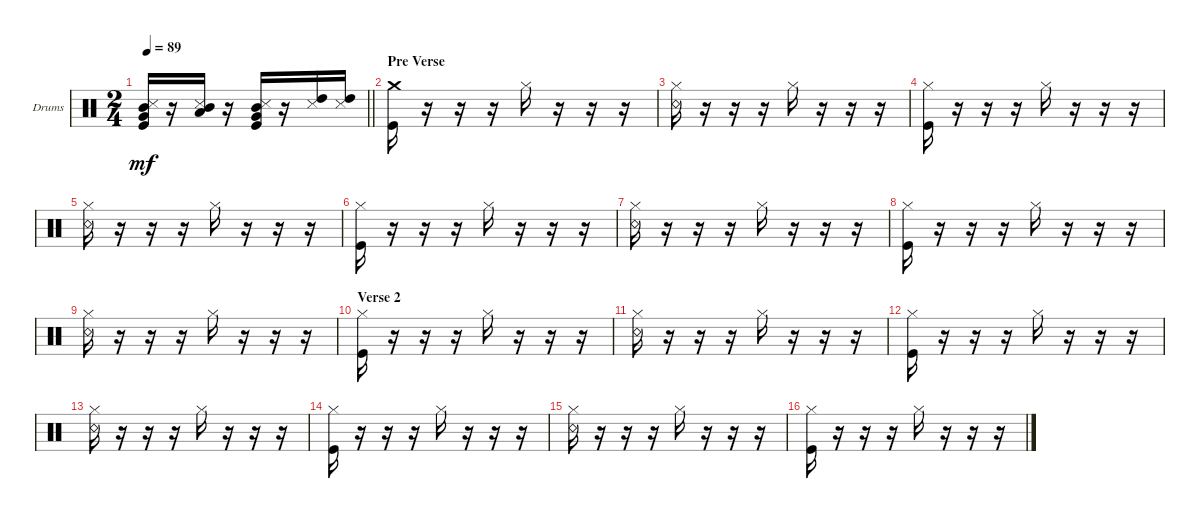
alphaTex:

\bracketExtendMode groupsimilarinstruments
\firstSystemTrackNameOrientation horizontal
\otherSystemsTrackNameOrientation horizontal
\track ("Ryo" "Drums") {instrument percussion}
\staff {score}
\articulation defaults
\ts (2 4)
\tempo 89
\clef neutral
\barLineRight lightlight
\ks c
("Kick (hit)" "Very Low Tom (hit)" "Snare (side stick) 3" "Mid Tom (hit)").16{dy mf} r.16 ("Mid Tom (hit)" "Low Tom (hit)" "Snare (side stick) 3").16 r.16 ("Kick (hit)" "Very Low Tom (hit)" "Snare (side stick) 3" "Mid Tom (hit)").16 r.16 ("High Tom (hit)" "Snare (side stick) 3").16 ("High Tom (hit)" "Snare (side stick) 3").16 |
\section ("" "Pre Verse")
("Kick (hit)" "Crash medium (hit)").16 r.16 r.16 r.16 "Hi-Hat (closed)".16 r.16 r.16 r.16 |
("Snare (rim shot)" "Hi-Hat (closed)").16 r.16 r.16 r.16 "Hi-Hat (closed)".16 r.16 r.16 r.16 |
("Kick (hit)" "Hi-Hat (closed)").16 r.16 r.16 r.16 "Hi-Hat (closed)".16 r.16 r.16 r.16 |
("Snare (rim shot)" "Hi-Hat (closed)").16 r.16 r.16 r.16 "Hi-Hat (closed)".16 r.16 r.16 r.16 |
("Kick (hit)" "Hi-Hat (closed)").16 r.16 r.16 r.16 "Hi-Hat (closed)".16 r.16 r.16 r.16 |
("Snare (rim shot)" "Hi-Hat (closed)").16 r.16 r.16 r.16 "Hi-Hat (closed)".16 r.16 r.16 r.16 |
("Kick (hit)" "Hi-Hat (closed)").16 r.16 r.16 r.16 "Hi-Hat (closed)".16 r.16 r.16 r.16 |
("Snare (rim shot)" "Hi-Hat (closed)").16 r.16 r.16 r.16 "Hi-Hat (closed)".16 r.16 r.16 r.16 |
\section ("" "Verse 2")
("Kick (hit)" "Hi-Hat (closed)").16 r.16 r.16 r.16 "Hi-Hat (closed)".16 r.16 r.16 r.16 |
("Snare (rim shot)" "Hi-Hat (closed)").16 r.16 r.16 r.16 "Hi-Hat (closed)".16 r.16 r.16 r.16 |
("Kick (hit)" "Hi-Hat (closed)").16 r.16 r.16 r.16 "Hi-Hat (closed)".16 r.16 r.16 r.16 |
("Snare (rim shot)" "Hi-Hat (closed)").16 r.16 r.16 r.16 "Hi-Hat (closed)".16 r.16 r.16 r.16 |
("Kick (hit)" "Hi-Hat (closed)").16 r.16 r.16 r.16 "Hi-Hat (closed)".16 r.16 r.16 r.16 |
("Snare (rim shot)" "Hi-Hat (closed)").16 r.16 r.16 r.16 "Hi-Hat (closed)".16 r.16 r.16 r.16 |
("Kick (hit)" "Hi-Hat (closed)").16 r.16 r.16 r.16 "Hi-Hat (closed)".16 r.16 r.16 r.16
